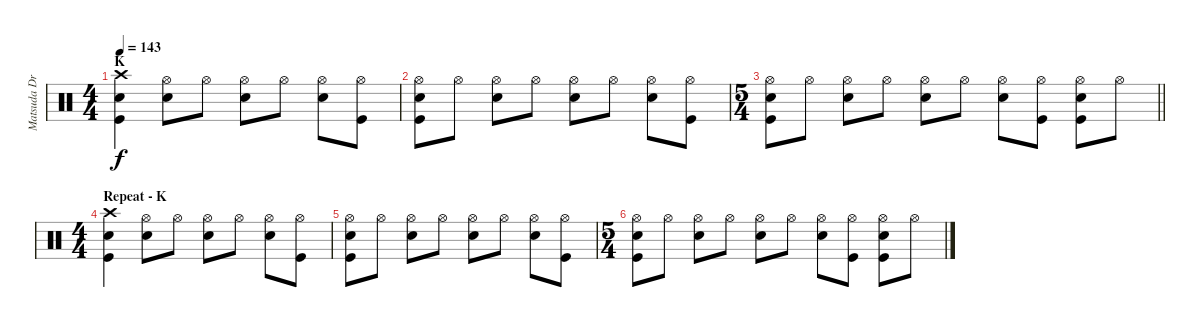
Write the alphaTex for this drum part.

\track ("Matsuda Drums" "Matsuda Dr") {instrument percussion}
\staff {score}
\articulation defaults
\ts (4 4)
\section ("" "K")
\tempo 143
\clef neutral
\ks c
("Crash high (hit)" "Snare (hit) 2" "Kick (hit)").4{dy f} ("Hi-Hat (open)" "Snare (hit) 2").8 "Hi-Hat (open)".8 ("Hi-Hat (open)" "Snare (hit) 2").8 "Hi-Hat (open)".8 ("Hi-Hat (open)" "Snare (hit) 2").8 ("Hi-Hat (open)" "Kick (hit)").8 |
("Hi-Hat (open)" "Snare (hit) 2" "Kick (hit)").8 "Hi-Hat (open)".8 ("Hi-Hat (open)" "Snare (hit) 2").8 "Hi-Hat (open)".8 ("Hi-Hat (open)" "Snare (hit) 2").8 "Hi-Hat (open)".8 ("Hi-Hat (open)" "Snare (hit) 2").8 ("Hi-Hat (open)" "Kick (hit)").8 |
\ts (5 4)
\barLineRight lightlight
("Hi-Hat (open)" "Snare (hit) 2" "Kick (hit)").8 "Hi-Hat (open)".8 ("Hi-Hat (open)" "Snare (hit) 2").8 "Hi-Hat (open)".8 ("Hi-Hat (open)" "Snare (hit) 2").8 "Hi-Hat (open)".8 ("Hi-Hat (open)" "Snare (hit) 2").8 ("Hi-Hat (open)" "Kick (hit)").8 ("Hi-Hat (open)" "Snare (hit) 2" "Kick (hit)").8 "Hi-Hat (open)".8 |
\ts (4 4)
\section ("" "Repeat - K")
("Crash high (hit)" "Snare (hit) 2" "Kick (hit)").4 ("Hi-Hat (open)" "Snare (hit) 2").8 "Hi-Hat (open)".8 ("Hi-Hat (open)" "Snare (hit) 2").8 "Hi-Hat (open)".8 ("Hi-Hat (open)" "Snare (hit) 2").8 ("Hi-Hat (open)" "Kick (hit)").8 |
("Hi-Hat (open)" "Snare (hit) 2" "Kick (hit)").8 "Hi-Hat (open)".8 ("Hi-Hat (open)" "Snare (hit) 2").8 "Hi-Hat (open)".8 ("Hi-Hat (open)" "Snare (hit) 2").8 "Hi-Hat (open)".8 ("Hi-Hat (open)" "Snare (hit) 2").8 ("Hi-Hat (open)" "Kick (hit)").8 |
\ts (5 4)
("Hi-Hat (open)" "Snare (hit) 2" "Kick (hit)").8 "Hi-Hat (open)".8 ("Hi-Hat (open)" "Snare (hit) 2").8 "Hi-Hat (open)".8 ("Hi-Hat (open)" "Snare (hit) 2").8 "Hi-Hat (open)".8 ("Hi-Hat (open)" "Snare (hit) 2").8 ("Hi-Hat (open)" "Kick (hit)").8 ("Hi-Hat (open)" "Snare (hit) 2" "Kick (hit)").8 "Hi-Hat (open)".8
